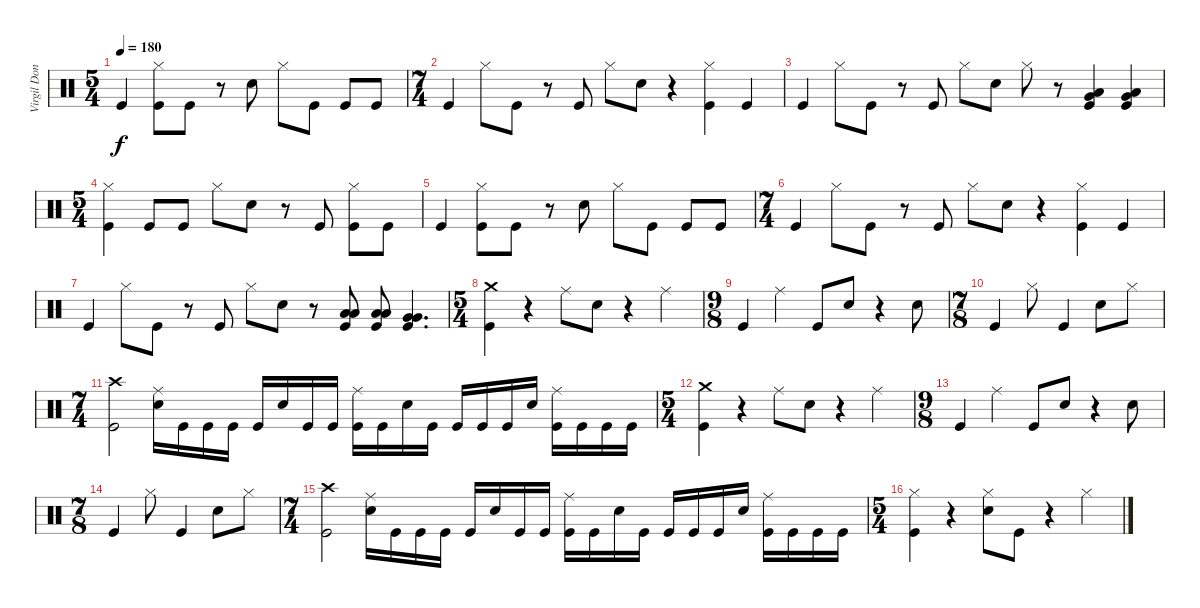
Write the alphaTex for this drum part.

\track ("Virgil Donati" "Virgil Don") {instrument percussion}
\staff {score}
\articulation defaults
\ts (5 4)
\tempo 180
\clef neutral
\ks c "Kick (hit)".4{dy f}
("Hi-Hat (closed)" "Kick (hit)").8 "Kick (hit)".8 r.8 "Snare (hit) 2".8 "Hi-Hat (closed)".8 "Kick (hit)".8 "Kick (hit)".8 "Kick (hit)".8 |
\ts (7 4)
"Kick (hit)".4 "Hi-Hat (closed)".8 "Kick (hit)".8 r.8 "Kick (hit)".8 "Hi-Hat (closed)".8 "Snare (hit) 2".8 r.4 ("Hi-Hat (closed)" "Kick (hit)").4 "Kick (hit)".4 |
"Kick (hit)".4 "Hi-Hat (closed)".8 "Kick (hit)".8 r.8 "Kick (hit)".8 "Hi-Hat (closed)".8 "Snare (hit) 2".8 "Hi-Hat (closed)".8 r.8 ("Very Low Tom (hit)" "Low Floor Tom (hit)" "Kick (hit)").4 ("Very Low Tom (hit)" "Low Floor Tom (hit)" "Kick (hit)").4 |
\ts (5 4)
("Hi-Hat (closed)" "Kick (hit)").4 "Kick (hit)".8 "Kick (hit)".8 "Hi-Hat (closed)".8 "Snare (hit) 2".8 r.8 "Kick (hit)".8 ("Hi-Hat (closed)" "Kick (hit)").8 "Kick (hit)".8 |
"Kick (hit)".4 ("Hi-Hat (closed)" "Kick (hit)").8 "Kick (hit)".8 r.8 "Snare (hit) 2".8 "Hi-Hat (closed)".8 "Kick (hit)".8 "Kick (hit)".8 "Kick (hit)".8 |
\ts (7 4)
"Kick (hit)".4 "Hi-Hat (closed)".8 "Kick (hit)".8 r.8 "Kick (hit)".8 "Hi-Hat (closed)".8 "Snare (hit) 2".8 r.4 ("Hi-Hat (closed)" "Kick (hit)").4 "Kick (hit)".4 |
"Kick (hit)".4 "Hi-Hat (closed)".8 "Kick (hit)".8 r.8 "Kick (hit)".8 "Hi-Hat (closed)".8 "Snare (hit) 2".8 r.8 ("Low Tom (hit)" "Low Tom (hit)" "Kick (hit)").8 ("Low Floor Tom (hit)" "Low Floor Tom (hit)" "Kick (hit)").8 ("Very Low Tom (hit)" "Very Low Tom (hit)" "Kick (hit)").4{d} |
\ts (5 4)
("Crash medium (hit)" "Kick (hit)").4 r.4 "Ride (middle)".8 "Snare (hit) 2".8 r.4 "Ride (middle)".4 |
\ts (9 8)
"Kick (hit)".4 "Ride (middle)".4 "Kick (hit)".8 "Snare (hit) 2".8 r.4 "Snare (hit) 2".8 |
\ts (7 8)
"Kick (hit)".4 "Hi-Hat (closed)".8 "Kick (hit)".4 "Snare (hit) 2".8 "Hi-Hat (closed)".8 |
\ts (7 4)
("Crash high (hit)" "Kick (hit)").2 ("Ride (middle)" "Snare (hit) 2").16 "Kick (hit)".16 "Kick (hit)".16 "Kick (hit)".16 "Kick (hit)".16 "Snare (hit) 2".16 "Kick (hit)".16 "Kick (hit)".16 ("Ride (middle)" "Kick (hit)").16 "Kick (hit)".16 "Snare (hit) 2".16 "Kick (hit)".16 "Kick (hit)".16 "Kick (hit)".16 "Kick (hit)".16 "Snare (hit) 2".16 ("Ride (middle)" "Kick (hit)").16 "Kick (hit)".16 "Kick (hit)".16 "Kick (hit)".16 |
\ts (5 4)
("Crash medium (hit)" "Kick (hit)").4 r.4 "Ride (middle)".8 "Snare (hit) 2".8 r.4 "Ride (middle)".4 |
\ts (9 8)
"Kick (hit)".4 "Ride (middle)".4 "Kick (hit)".8 "Snare (hit) 2".8 r.4 "Snare (hit) 2".8 |
\ts (7 8)
"Kick (hit)".4 "Hi-Hat (closed)".8 "Kick (hit)".4 "Snare (hit) 2".8 "Hi-Hat (closed)".8 |
\ts (7 4)
("Crash high (hit)" "Kick (hit)").2 ("Ride (middle)" "Snare (hit) 2").16 "Kick (hit)".16 "Kick (hit)".16 "Kick (hit)".16 "Kick (hit)".16 "Snare (hit) 2".16 "Kick (hit)".16 "Kick (hit)".16 ("Ride (middle)" "Kick (hit)").16 "Kick (hit)".16 "Snare (hit) 2".16 "Kick (hit)".16 "Kick (hit)".16 "Kick (hit)".16 "Kick (hit)".16 "Snare (hit) 2".16 ("Ride (middle)" "Kick (hit)").16 "Kick (hit)".16 "Kick (hit)".16 "Kick (hit)".16 |
\ts (5 4)
("Hi-Hat (closed)" "Kick (hit)").4 r.4 ("Hi-Hat (closed)" "Snare (hit) 2").8 "Kick (hit)".8 r.4 "Hi-Hat (closed)".4
